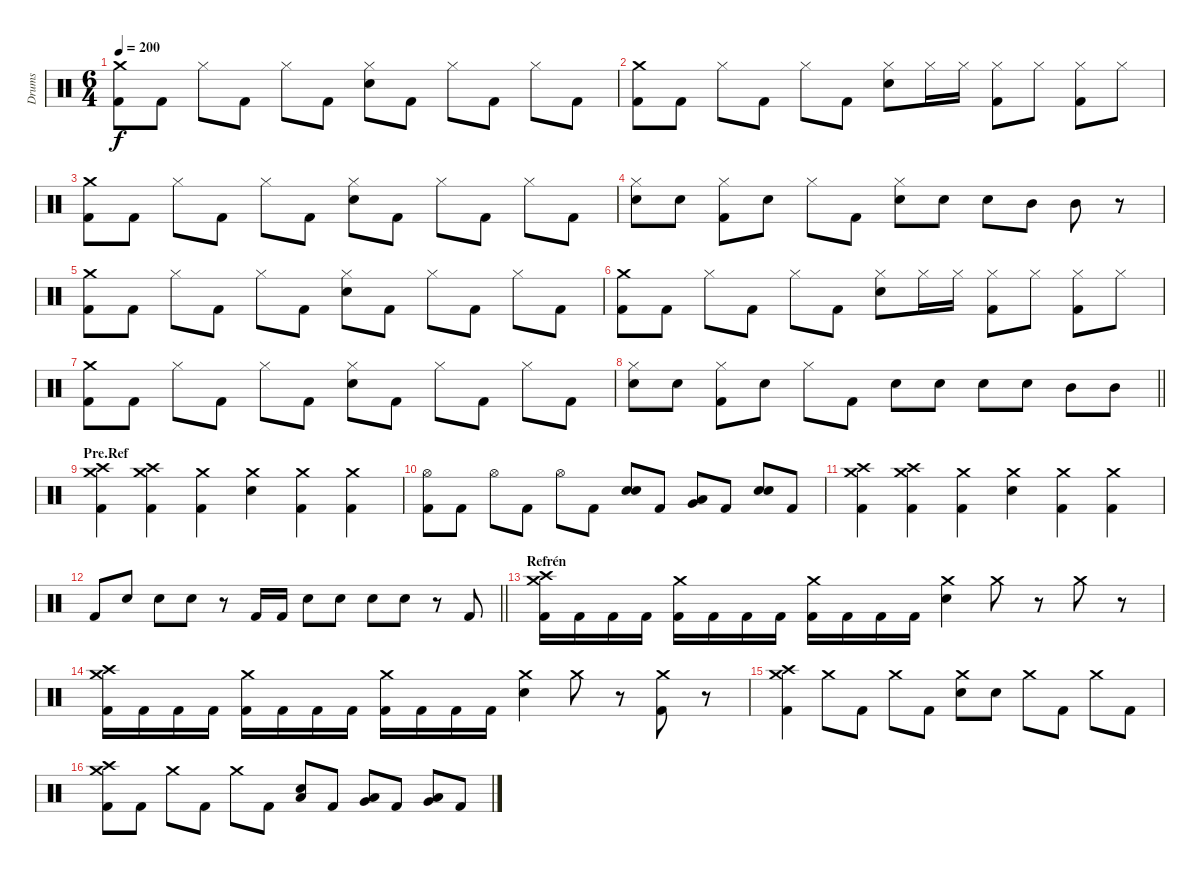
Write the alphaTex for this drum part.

\track ("Drums" "Drums") {instrument percussion}
\staff {score}
\articulation defaults
\ts (6 4)
\tempo 200
\clef neutral
\ks c
("Crash medium (hit)" "Kick (hit) 2").8{dy f} "Kick (hit) 2".8 "Hi-Hat (closed)".8 "Kick (hit) 2".8 "Hi-Hat (closed)".8 "Kick (hit) 2".8 ("Hi-Hat (closed)" "Electric Snare (hit)").8 "Kick (hit) 2".8 "Hi-Hat (closed)".8 "Kick (hit) 2".8 "Hi-Hat (closed)".8 "Kick (hit) 2".8 |
("Crash medium (hit)" "Kick (hit) 2").8 "Kick (hit) 2".8 "Hi-Hat (closed)".8 "Kick (hit) 2".8 "Hi-Hat (closed)".8 "Kick (hit) 2".8 ("Hi-Hat (closed)" "Electric Snare (hit)").8 "Hi-Hat (closed)".16 "Hi-Hat (closed)".16 ("Hi-Hat (closed)" "Kick (hit) 2").8 "Hi-Hat (closed)".8 ("Hi-Hat (closed)" "Kick (hit) 2").8 "Hi-Hat (closed)".8 |
("Crash medium (hit)" "Kick (hit) 2").8 "Kick (hit) 2".8 "Hi-Hat (closed)".8 "Kick (hit) 2".8 "Hi-Hat (closed)".8 "Kick (hit) 2".8 ("Hi-Hat (closed)" "Electric Snare (hit)").8 "Kick (hit) 2".8 "Hi-Hat (closed)".8 "Kick (hit) 2".8 "Hi-Hat (closed)".8 "Kick (hit) 2".8 |
("Hi-Hat (closed)" "Electric Snare (hit)").8 "Electric Snare (hit)".8 ("Hi-Hat (closed)" "Kick (hit) 2").8 "Electric Snare (hit)".8 "Hi-Hat (closed)".8 "Kick (hit) 2".8 ("Hi-Hat (closed)" "Electric Snare (hit)").8 "Electric Snare (hit)".8 "Electric Snare (hit)".8 "Mid Tom (hit)".8 "Mid Tom (hit)".8 r.8 |
("Crash medium (hit)" "Kick (hit) 2").8 "Kick (hit) 2".8 "Hi-Hat (closed)".8 "Kick (hit) 2".8 "Hi-Hat (closed)".8 "Kick (hit) 2".8 ("Hi-Hat (closed)" "Electric Snare (hit)").8 "Kick (hit) 2".8 "Hi-Hat (closed)".8 "Kick (hit) 2".8 "Hi-Hat (closed)".8 "Kick (hit) 2".8 |
("Crash medium (hit)" "Kick (hit) 2").8 "Kick (hit) 2".8 "Hi-Hat (closed)".8 "Kick (hit) 2".8 "Hi-Hat (closed)".8 "Kick (hit) 2".8 ("Hi-Hat (closed)" "Electric Snare (hit)").8 "Hi-Hat (closed)".16 "Hi-Hat (closed)".16 ("Hi-Hat (closed)" "Kick (hit) 2").8 "Hi-Hat (closed)".8 ("Hi-Hat (closed)" "Kick (hit) 2").8 "Hi-Hat (closed)".8 |
("Crash medium (hit)" "Kick (hit) 2").8 "Kick (hit) 2".8 "Hi-Hat (closed)".8 "Kick (hit) 2".8 "Hi-Hat (closed)".8 "Kick (hit) 2".8 ("Hi-Hat (closed)" "Electric Snare (hit)").8 "Kick (hit) 2".8 "Hi-Hat (closed)".8 "Kick (hit) 2".8 "Hi-Hat (closed)".8 "Kick (hit) 2".8 |
\barLineRight lightlight
("Hi-Hat (closed)" "Electric Snare (hit)").8 "Electric Snare (hit)".8 ("Hi-Hat (closed)" "Kick (hit) 2").8 "Electric Snare (hit)".8 "Hi-Hat (closed)".8 "Kick (hit) 2".8 "Electric Snare (hit)".8 "Electric Snare (hit)".8 "Electric Snare (hit)".8 "Electric Snare (hit)".8 "Mid Tom (hit)".8 "Mid Tom (hit)".8 |
\section ("" "Pre.Ref")
("Crash medium (hit)" "Crash high (hit)" "Kick (hit) 2").4 ("Crash medium (hit)" "Crash high (hit)" "Kick (hit) 2").4 ("Crash medium (hit)" "Kick (hit) 2").4 ("Crash medium (hit)" "Electric Snare (hit)").4 ("Crash medium (hit)" "Kick (hit) 2").4 ("Crash medium (hit)" "Kick (hit) 2").4 |
("Hi-Hat (open)" "Kick (hit) 2").8 "Kick (hit) 2".8 "Hi-Hat (open)".8 "Kick (hit) 2".8 "Hi-Hat (open)".8 "Kick (hit) 2".8 ("Electric Snare (hit)" "Electric Snare (hit)").8 "Kick (hit) 2".8 ("Low Tom (hit)" "Very Low Tom (hit)").8 "Kick (hit) 2".8 ("Electric Snare (hit)" "Electric Snare (hit)").8 "Kick (hit) 2".8 |
("Crash medium (hit)" "Crash high (hit)" "Kick (hit) 2").4 ("Crash medium (hit)" "Crash high (hit)" "Kick (hit) 2").4 ("Crash medium (hit)" "Kick (hit) 2").4 ("Crash medium (hit)" "Electric Snare (hit)").4 ("Crash medium (hit)" "Kick (hit) 2").4 ("Crash medium (hit)" "Kick (hit) 2").4 |
\barLineRight lightlight "Kick (hit) 2".8 "Electric Snare (hit)".8 "Electric Snare (hit)".8 "Electric Snare (hit)".8
r.8 "Kick (hit) 2".16 "Kick (hit) 2".16 "Electric Snare (hit)".8 "Electric Snare (hit)".8 "Electric Snare (hit)".8 "Electric Snare (hit)".8 r.8 "Kick (hit) 2".8 |
\section ("" "Refrén")
("Crash medium (hit)" "Crash high (hit)" "Kick (hit) 2").16 "Kick (hit) 2".16 "Kick (hit) 2".16 "Kick (hit) 2".16 ("Crash medium (hit)" "Kick (hit) 2").16 "Kick (hit) 2".16 "Kick (hit) 2".16 "Kick (hit) 2".16 ("Crash medium (hit)" "Kick (hit) 2").16 "Kick (hit) 2".16 "Kick (hit) 2".16 "Kick (hit) 2".16 ("Crash medium (hit)" "Electric Snare (hit)").4 "Crash medium (hit)".8 r.8 "Crash medium (hit)".8 r.8 |
("Crash medium (hit)" "Crash high (hit)" "Kick (hit) 2").16 "Kick (hit) 2".16 "Kick (hit) 2".16 "Kick (hit) 2".16 ("Crash medium (hit)" "Kick (hit) 2").16 "Kick (hit) 2".16 "Kick (hit) 2".16 "Kick (hit) 2".16 ("Crash medium (hit)" "Kick (hit) 2").16 "Kick (hit) 2".16 "Kick (hit) 2".16 "Kick (hit) 2".16 ("Crash medium (hit)" "Electric Snare (hit)").4 "Crash medium (hit)".8 r.8 ("Crash medium (hit)" "Kick (hit) 2").8 r.8 |
("Crash medium (hit)" "Crash high (hit)" "Kick (hit) 2").4 "Crash medium (hit)".8 "Kick (hit) 2".8 "Crash medium (hit)".8 "Kick (hit) 2".8 ("Crash medium (hit)" "Electric Snare (hit)").8 "Electric Snare (hit)".8 "Crash medium (hit)".8 "Kick (hit) 2".8 "Crash medium (hit)".8 "Kick (hit) 2".8 |
("Crash medium (hit)" "Crash high (hit)" "Kick (hit) 2").8 "Kick (hit) 2".8 "Crash medium (hit)".8 "Kick (hit) 2".8 "Crash medium (hit)".8 "Kick (hit) 2".8 ("Low Floor Tom (hit)" "Electric Snare (hit)").8 "Kick (hit) 2".8 ("Low Tom (hit)" "Very Low Tom (hit)").8 "Kick (hit) 2".8 ("Very Low Tom (hit)" "Low Floor Tom (hit)").8 "Kick (hit) 2".8
